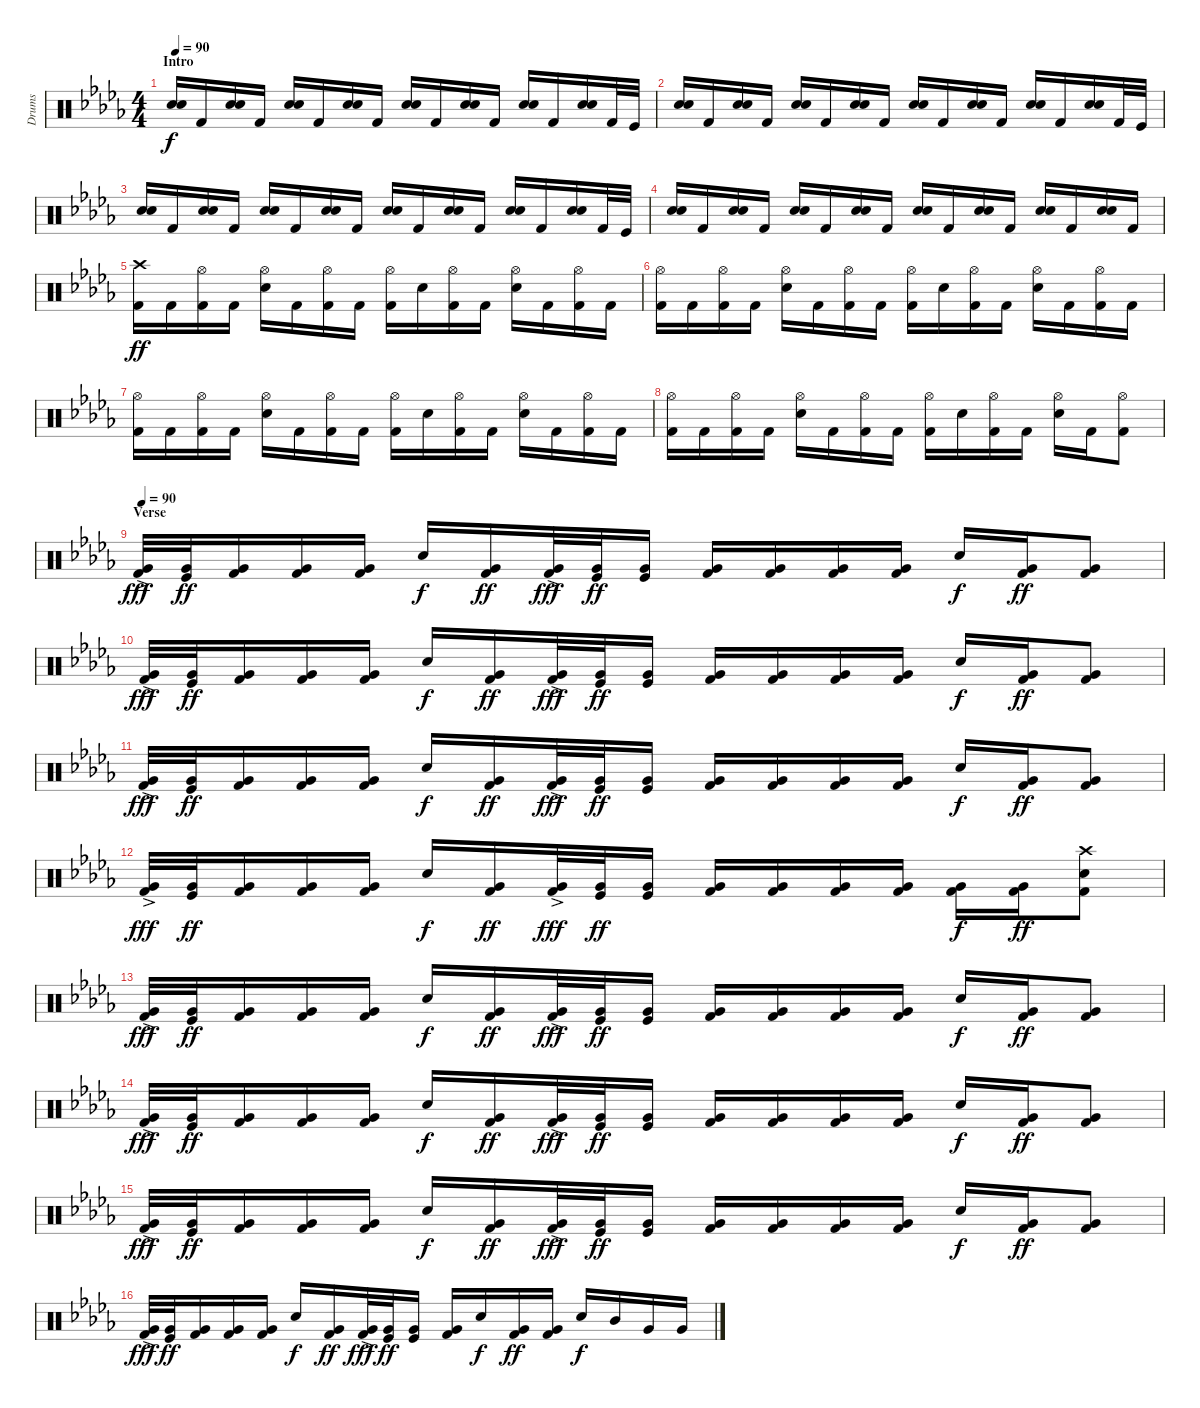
\track ("Drums" "Drums") {instrument percussion}
\staff {score}
\articulation defaults
\ts (4 4)
\section ("" "Intro")
\tempo 90
\tempo 92
\tempo 90
\clef neutral
\ks db
("Electric Snare (hit)" "Electric Snare (hit)").16{bd 60 dy f volume 8 balance 3} "Kick (hit) 2".16 ("Electric Snare (hit)" "Electric Snare (hit)").16{bd 60} "Kick (hit) 2".16 ("Electric Snare (hit)" "Electric Snare (hit)").16{bd 60} "Kick (hit) 2".16 ("Electric Snare (hit)" "Electric Snare (hit)").16{bd 60} "Kick (hit) 2".16 ("Electric Snare (hit)" "Electric Snare (hit)").16{bd 60 volume 13} "Kick (hit) 2".16 ("Electric Snare (hit)" "Electric Snare (hit)").16{bd 60} "Kick (hit) 2".16 ("Electric Snare (hit)" "Electric Snare (hit)").16{bd 60} "Kick (hit) 2".16 ("Electric Snare (hit)" "Electric Snare (hit)").16{bd 60} "Kick (hit) 2".32 "Kick (hit)".32 |
("Electric Snare (hit)" "Electric Snare (hit)").16{bd 60} "Kick (hit) 2".16 ("Electric Snare (hit)" "Electric Snare (hit)").16{bd 60} "Kick (hit) 2".16 ("Electric Snare (hit)" "Electric Snare (hit)").16{bd 60} "Kick (hit) 2".16 ("Electric Snare (hit)" "Electric Snare (hit)").16{bd 60} "Kick (hit) 2".16 ("Electric Snare (hit)" "Electric Snare (hit)").16{bd 60} "Kick (hit) 2".16 ("Electric Snare (hit)" "Electric Snare (hit)").16{bd 60} "Kick (hit) 2".16 ("Electric Snare (hit)" "Electric Snare (hit)").16{bd 60} "Kick (hit) 2".16 ("Electric Snare (hit)" "Electric Snare (hit)").16{bd 60} "Kick (hit) 2".32 "Kick (hit)".32 |
("Electric Snare (hit)" "Electric Snare (hit)").16{bd 60} "Kick (hit) 2".16 ("Electric Snare (hit)" "Electric Snare (hit)").16{bd 60} "Kick (hit) 2".16 ("Electric Snare (hit)" "Electric Snare (hit)").16{bd 60} "Kick (hit) 2".16 ("Electric Snare (hit)" "Electric Snare (hit)").16{bd 60} "Kick (hit) 2".16 ("Electric Snare (hit)" "Electric Snare (hit)").16{bd 60} "Kick (hit) 2".16 ("Electric Snare (hit)" "Electric Snare (hit)").16{bd 60} "Kick (hit) 2".16 ("Electric Snare (hit)" "Electric Snare (hit)").16{bd 60} "Kick (hit) 2".16 ("Electric Snare (hit)" "Electric Snare (hit)").16{bd 60} "Kick (hit) 2".32 "Kick (hit)".32 |
("Electric Snare (hit)" "Electric Snare (hit)").16{bd 60} "Kick (hit) 2".16 ("Electric Snare (hit)" "Electric Snare (hit)").16{bd 60} "Kick (hit) 2".16 ("Electric Snare (hit)" "Electric Snare (hit)").16{bd 60} "Kick (hit) 2".16 ("Electric Snare (hit)" "Electric Snare (hit)").16{bd 60} "Kick (hit) 2".16 ("Electric Snare (hit)" "Electric Snare (hit)").16{bd 60} "Kick (hit) 2".16 ("Electric Snare (hit)" "Electric Snare (hit)").16{bd 60} "Kick (hit) 2".16 ("Electric Snare (hit)" "Electric Snare (hit)").16{bd 60} "Kick (hit) 2".16 ("Electric Snare (hit)" "Electric Snare (hit)").16{bd 60} "Kick (hit) 2".16 |
("Crash high (hit)" "Kick (hit) 2").16{dy ff} "Kick (hit) 2".16 ("Hi-Hat (open)" "Kick (hit) 2").16 "Kick (hit) 2".16 ("Hi-Hat (open)" "Electric Snare (hit)").16 "Kick (hit) 2".16 ("Hi-Hat (open)" "Kick (hit) 2").16 "Kick (hit) 2".16 ("Hi-Hat (open)" "Kick (hit) 2").16 "Electric Snare (hit)".16 ("Hi-Hat (open)" "Kick (hit) 2").16 "Kick (hit) 2".16 ("Hi-Hat (open)" "Electric Snare (hit)").16 "Kick (hit) 2".16 ("Hi-Hat (open)" "Kick (hit) 2").16 "Kick (hit) 2".16 |
("Hi-Hat (open)" "Kick (hit) 2").16 "Kick (hit) 2".16 ("Hi-Hat (open)" "Kick (hit) 2").16 "Kick (hit) 2".16 ("Hi-Hat (open)" "Electric Snare (hit)").16 "Kick (hit) 2".16 ("Hi-Hat (open)" "Kick (hit) 2").16 "Kick (hit) 2".16 ("Hi-Hat (open)" "Kick (hit) 2").16 "Electric Snare (hit)".16 ("Hi-Hat (open)" "Kick (hit) 2").16 "Kick (hit) 2".16 ("Hi-Hat (open)" "Electric Snare (hit)").16 "Kick (hit) 2".16 ("Hi-Hat (open)" "Kick (hit) 2").16 "Kick (hit) 2".16 |
("Hi-Hat (open)" "Kick (hit) 2").16 "Kick (hit) 2".16 ("Hi-Hat (open)" "Kick (hit) 2").16 "Kick (hit) 2".16 ("Hi-Hat (open)" "Electric Snare (hit)").16 "Kick (hit) 2".16 ("Hi-Hat (open)" "Kick (hit) 2").16 "Kick (hit) 2".16 ("Hi-Hat (open)" "Kick (hit) 2").16 "Electric Snare (hit)".16 ("Hi-Hat (open)" "Kick (hit) 2").16 "Kick (hit) 2".16 ("Hi-Hat (open)" "Electric Snare (hit)").16 "Kick (hit) 2".16 ("Hi-Hat (open)" "Kick (hit) 2").16 "Kick (hit) 2".16 |
("Hi-Hat (open)" "Kick (hit) 2").16 "Kick (hit) 2".16 ("Hi-Hat (open)" "Kick (hit) 2").16 "Kick (hit) 2".16 ("Hi-Hat (open)" "Electric Snare (hit)").16 "Kick (hit) 2".16 ("Hi-Hat (open)" "Kick (hit) 2").16 "Kick (hit) 2".16 ("Hi-Hat (open)" "Kick (hit) 2").16 "Electric Snare (hit)".16 ("Hi-Hat (open)" "Kick (hit) 2").16 "Kick (hit) 2".16 ("Hi-Hat (open)" "Electric Snare (hit)").16 "Kick (hit) 2".16 ("Hi-Hat (open)" "Kick (hit) 2").8 |
\section ("" "Verse")
\tempo 90
("Very Low Tom (hit)"{ac} "Kick (hit) 2"{ac}).32{dy fff} ("Very Low Tom (hit)" "Kick (hit)").32{dy ff} ("Very Low Tom (hit)" "Kick (hit) 2").16 ("Very Low Tom (hit)" "Kick (hit) 2").16 ("Very Low Tom (hit)" "Kick (hit) 2").16 "Electric Snare (hit)".16{dy f} ("Very Low Tom (hit)" "Kick (hit) 2").16{dy ff} ("Very Low Tom (hit)"{ac} "Kick (hit) 2"{ac}).32{dy fff} ("Very Low Tom (hit)" "Kick (hit)").32{dy ff} ("Very Low Tom (hit)" "Kick (hit)").16 ("Very Low Tom (hit)" "Kick (hit) 2").16 ("Very Low Tom (hit)" "Kick (hit) 2").16 ("Very Low Tom (hit)" "Kick (hit) 2").16 ("Very Low Tom (hit)" "Kick (hit) 2").16 "Electric Snare (hit)".16{dy f} ("Very Low Tom (hit)" "Kick (hit) 2").16{dy ff} ("Very Low Tom (hit)" "Kick (hit) 2").8 |
("Very Low Tom (hit)"{ac} "Kick (hit) 2"{ac}).32{dy fff} ("Very Low Tom (hit)" "Kick (hit)").32{dy ff} ("Very Low Tom (hit)" "Kick (hit) 2").16 ("Very Low Tom (hit)" "Kick (hit) 2").16 ("Very Low Tom (hit)" "Kick (hit) 2").16 "Electric Snare (hit)".16{dy f} ("Very Low Tom (hit)" "Kick (hit) 2").16{dy ff} ("Very Low Tom (hit)"{ac} "Kick (hit) 2"{ac}).32{dy fff} ("Very Low Tom (hit)" "Kick (hit)").32{dy ff} ("Very Low Tom (hit)" "Kick (hit)").16 ("Very Low Tom (hit)" "Kick (hit) 2").16 ("Very Low Tom (hit)" "Kick (hit) 2").16 ("Very Low Tom (hit)" "Kick (hit) 2").16 ("Very Low Tom (hit)" "Kick (hit) 2").16 "Electric Snare (hit)".16{dy f} ("Very Low Tom (hit)" "Kick (hit) 2").16{dy ff} ("Very Low Tom (hit)" "Kick (hit) 2").8 |
("Very Low Tom (hit)"{ac} "Kick (hit) 2"{ac}).32{dy fff} ("Very Low Tom (hit)" "Kick (hit)").32{dy ff} ("Very Low Tom (hit)" "Kick (hit) 2").16 ("Very Low Tom (hit)" "Kick (hit) 2").16 ("Very Low Tom (hit)" "Kick (hit) 2").16 "Electric Snare (hit)".16{dy f} ("Very Low Tom (hit)" "Kick (hit) 2").16{dy ff} ("Very Low Tom (hit)"{ac} "Kick (hit) 2"{ac}).32{dy fff} ("Very Low Tom (hit)" "Kick (hit)").32{dy ff} ("Very Low Tom (hit)" "Kick (hit)").16 ("Very Low Tom (hit)" "Kick (hit) 2").16 ("Very Low Tom (hit)" "Kick (hit) 2").16 ("Very Low Tom (hit)" "Kick (hit) 2").16 ("Very Low Tom (hit)" "Kick (hit) 2").16 "Electric Snare (hit)".16{dy f} ("Very Low Tom (hit)" "Kick (hit) 2").16{dy ff} ("Very Low Tom (hit)" "Kick (hit) 2").8 |
("Very Low Tom (hit)"{ac} "Kick (hit) 2"{ac}).32{dy fff} ("Very Low Tom (hit)" "Kick (hit)").32{dy ff} ("Very Low Tom (hit)" "Kick (hit) 2").16 ("Very Low Tom (hit)" "Kick (hit) 2").16 ("Very Low Tom (hit)" "Kick (hit) 2").16 "Electric Snare (hit)".16{dy f} ("Very Low Tom (hit)" "Kick (hit) 2").16{dy ff} ("Very Low Tom (hit)"{ac} "Kick (hit) 2"{ac}).32{dy fff} ("Very Low Tom (hit)" "Kick (hit)").32{dy ff} ("Very Low Tom (hit)" "Kick (hit)").16 ("Very Low Tom (hit)" "Kick (hit) 2").16 ("Very Low Tom (hit)" "Kick (hit) 2").16 ("Very Low Tom (hit)" "Kick (hit) 2").16 ("Very Low Tom (hit)" "Kick (hit) 2").16 ("Very Low Tom (hit)" "Kick (hit) 2").16{dy f} ("Very Low Tom (hit)" "Kick (hit) 2").16{dy ff} ("Crash high (hit)" "Electric Snare (hit)" "Kick (hit) 2").8 |
("Very Low Tom (hit)"{ac} "Kick (hit) 2"{ac}).32{dy fff} ("Very Low Tom (hit)" "Kick (hit)").32{dy ff} ("Very Low Tom (hit)" "Kick (hit) 2").16 ("Very Low Tom (hit)" "Kick (hit) 2").16 ("Very Low Tom (hit)" "Kick (hit) 2").16 "Electric Snare (hit)".16{dy f} ("Very Low Tom (hit)" "Kick (hit) 2").16{dy ff} ("Very Low Tom (hit)"{ac} "Kick (hit) 2"{ac}).32{dy fff} ("Very Low Tom (hit)" "Kick (hit)").32{dy ff} ("Very Low Tom (hit)" "Kick (hit)").16 ("Very Low Tom (hit)" "Kick (hit) 2").16 ("Very Low Tom (hit)" "Kick (hit) 2").16 ("Very Low Tom (hit)" "Kick (hit) 2").16 ("Very Low Tom (hit)" "Kick (hit) 2").16 "Electric Snare (hit)".16{dy f} ("Very Low Tom (hit)" "Kick (hit) 2").16{dy ff} ("Very Low Tom (hit)" "Kick (hit) 2").8 |
("Very Low Tom (hit)"{ac} "Kick (hit) 2"{ac}).32{dy fff} ("Very Low Tom (hit)" "Kick (hit)").32{dy ff} ("Very Low Tom (hit)" "Kick (hit) 2").16 ("Very Low Tom (hit)" "Kick (hit) 2").16 ("Very Low Tom (hit)" "Kick (hit) 2").16 "Electric Snare (hit)".16{dy f} ("Very Low Tom (hit)" "Kick (hit) 2").16{dy ff} ("Very Low Tom (hit)"{ac} "Kick (hit) 2"{ac}).32{dy fff} ("Very Low Tom (hit)" "Kick (hit)").32{dy ff} ("Very Low Tom (hit)" "Kick (hit)").16 ("Very Low Tom (hit)" "Kick (hit) 2").16 ("Very Low Tom (hit)" "Kick (hit) 2").16 ("Very Low Tom (hit)" "Kick (hit) 2").16 ("Very Low Tom (hit)" "Kick (hit) 2").16 "Electric Snare (hit)".16{dy f} ("Very Low Tom (hit)" "Kick (hit) 2").16{dy ff} ("Very Low Tom (hit)" "Kick (hit) 2").8 |
("Very Low Tom (hit)"{ac} "Kick (hit) 2"{ac}).32{dy fff} ("Very Low Tom (hit)" "Kick (hit)").32{dy ff} ("Very Low Tom (hit)" "Kick (hit) 2").16 ("Very Low Tom (hit)" "Kick (hit) 2").16 ("Very Low Tom (hit)" "Kick (hit) 2").16 "Electric Snare (hit)".16{dy f} ("Very Low Tom (hit)" "Kick (hit) 2").16{dy ff} ("Very Low Tom (hit)"{ac} "Kick (hit) 2"{ac}).32{dy fff} ("Very Low Tom (hit)" "Kick (hit)").32{dy ff} ("Very Low Tom (hit)" "Kick (hit)").16 ("Very Low Tom (hit)" "Kick (hit) 2").16 ("Very Low Tom (hit)" "Kick (hit) 2").16 ("Very Low Tom (hit)" "Kick (hit) 2").16 ("Very Low Tom (hit)" "Kick (hit) 2").16 "Electric Snare (hit)".16{dy f} ("Very Low Tom (hit)" "Kick (hit) 2").16{dy ff} ("Very Low Tom (hit)" "Kick (hit) 2").8 |
("Very Low Tom (hit)"{ac} "Kick (hit) 2"{ac}).32{dy fff} ("Very Low Tom (hit)" "Kick (hit)").32{dy ff} ("Very Low Tom (hit)" "Kick (hit) 2").16 ("Very Low Tom (hit)" "Kick (hit) 2").16 ("Very Low Tom (hit)" "Kick (hit) 2").16 "Electric Snare (hit)".16{dy f} ("Very Low Tom (hit)" "Kick (hit) 2").16{dy ff} ("Very Low Tom (hit)"{ac} "Kick (hit) 2"{ac}).32{dy fff} ("Very Low Tom (hit)" "Kick (hit)").32{dy ff} ("Very Low Tom (hit)" "Kick (hit)").16 ("Very Low Tom (hit)" "Kick (hit) 2").16 "Electric Snare (hit)".16{dy f} ("Very Low Tom (hit)" "Kick (hit) 2").16{dy ff} ("Very Low Tom (hit)" "Kick (hit) 2").16 "Electric Snare (hit)".16{dy f} "Mid Tom (hit)".16 "Very Low Tom (hit)".16 "Very Low Tom (hit)".16
